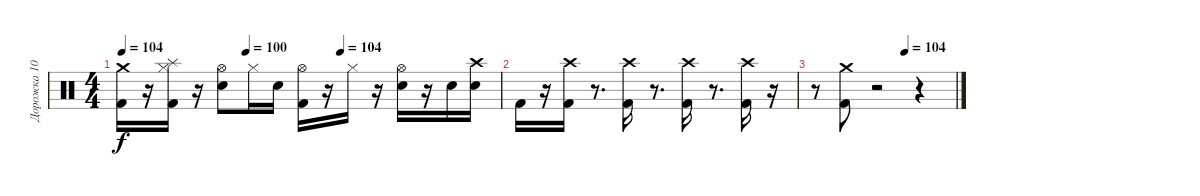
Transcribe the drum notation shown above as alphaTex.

\track ("Дорожка 10" "Дорожка 10") {instrument percussion}
\staff {score}
\articulation defaults
\ts (4 4)
\tempo 104
\tempo (100 0.328125)
\tempo (104 0.578125)
\clef neutral
\ks c
("Kick (hit) 2" "Crash medium (hit)").16{dy f} r.16 ("Kick (hit) 2" "Splash (hit)" "Hi-Hat (closed)").16 r.16 ("Hi-Hat (open)" "Electric Snare (hit)").8 "Hi-Hat (closed)".16 "Electric Snare (hit)".16 ("Hi-Hat (open)" "Kick (hit) 2").16 r.16 "Hi-Hat (closed)".16 r.16 ("Hi-Hat (open)" "Electric Snare (hit)").16 r.16 "Electric Snare (hit)".16 ("Crash high (hit)" "Electric Snare (hit)").16 |
"Kick (hit) 2".16 r.16 ("Kick (hit) 2" "Crash high (hit)").16 r.8{d} ("Kick (hit) 2" "Crash high (hit)").16 r.8{d} ("Kick (hit) 2" "Crash high (hit)").16 r.8{d} ("Kick (hit) 2" "Crash high (hit)").16 r.16 |
\tempo (104 0.640625)
r.8 ("Crash medium (hit)" "Kick (hit) 2").8 r.2 r.4
